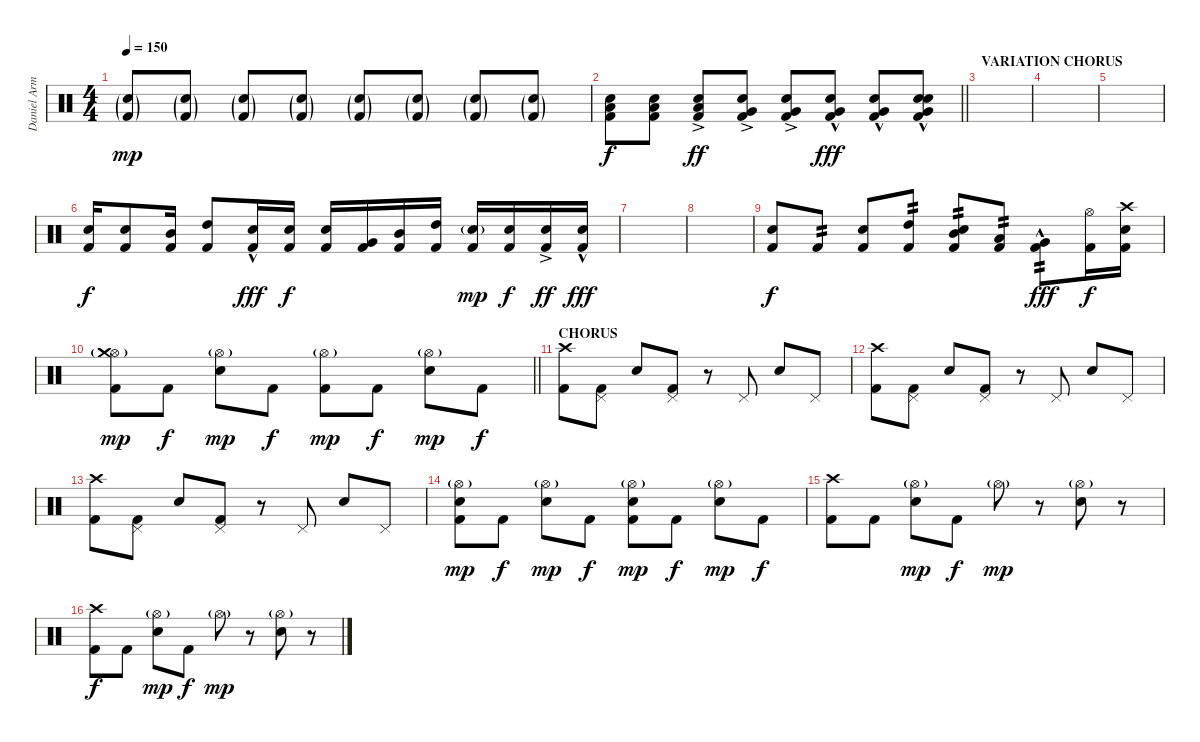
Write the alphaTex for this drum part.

\track ("Daniel Armstrong" "Daniel Arm") {instrument percussion}
\staff {score}
\articulation defaults
\ts (4 4)
\tempo 150
\clef neutral
\ks c
("Electric Snare (hit)"{g} "Kick (hit) 2"{g}).8{dy mp} ("Electric Snare (hit)"{g} "Kick (hit) 2"{g}).8 ("Electric Snare (hit)"{g} "Kick (hit) 2"{g}).8 ("Electric Snare (hit)"{g} "Kick (hit) 2"{g}).8 ("Electric Snare (hit)"{g} "Kick (hit) 2"{g}).8 ("Electric Snare (hit)"{g} "Kick (hit) 2"{g}).8 ("Electric Snare (hit)"{g} "Kick (hit) 2"{g}).8 ("Electric Snare (hit)"{g} "Kick (hit) 2"{g}).8 |
\barLineRight lightlight
("Electric Snare (hit)" "Low Floor Tom (hit)" "Kick (hit) 2").8{dy f} ("Electric Snare (hit)" "Low Floor Tom (hit)" "Kick (hit) 2").8 ("Electric Snare (hit)"{ac} "Low Floor Tom (hit)" "Kick (hit) 2"{ac}).8{dy ff} ("Electric Snare (hit)"{ac} "Very Low Tom (hit)" "Kick (hit) 2"{ac}).8 ("Electric Snare (hit)"{ac} "Very Low Tom (hit)" "Kick (hit) 2"{ac}).8 ("Electric Snare (hit)"{hac} "Very Low Tom (hit)" "Kick (hit) 2"{hac}).8{dy fff} ("Electric Snare (hit)"{hac} "Very Low Tom (hit)" "Kick (hit) 2"{hac}).8 ("Electric Snare (hit)"{hac} "Snare (hit) 2" "Very Low Tom (hit)" "Kick (hit) 2"{hac}).8 |
\section ("" "VARIATION CHORUS")
|
|
|
("Electric Snare (hit)" "Kick (hit) 2").16{dy f} ("Electric Snare (hit)" "Kick (hit) 2").8 ("Mid Tom (hit)" "Kick (hit) 2").16 ("High Tom (hit)" "Kick (hit) 2").8 ("Electric Snare (hit)"{hac} "Kick (hit) 2").16{dy fff} ("Electric Snare (hit)" "Kick (hit) 2").16{dy f} ("Electric Snare (hit)" "Kick (hit) 2").16 ("Very Low Tom (hit)" "Kick (hit) 2").16 ("Mid Tom (hit)" "Kick (hit) 2").16 ("High Tom (hit)" "Kick (hit) 2").16 ("Electric Snare (hit)"{g} "Kick (hit) 2").16{dy mp} ("Electric Snare (hit)" "Kick (hit) 2").16{dy f} ("Electric Snare (hit)"{ac} "Kick (hit) 2").16{dy ff} ("Electric Snare (hit)"{hac} "Kick (hit) 2").16{dy fff} |
|
|
("Electric Snare (hit)" "Kick (hit) 2").8{dy f} "Kick (hit) 2".8{tp 2} ("Electric Snare (hit)" "Kick (hit) 2").8 ("High Tom (hit)" "Kick (hit) 2").8{tp 2} ("Electric Snare (hit)" "Mid Tom (hit)" "Kick (hit) 2").8{tp 2} ("Low Tom (hit)" "Kick (hit) 2").8{tp 2} ("Very Low Tom (hit)"{hac} "Kick (hit) 2").8{tp 2 dy fff} ("Hi-Hat (open)" "Kick (hit) 2").16{dy f} ("Crash high (hit)" "Electric Snare (hit)" "Kick (hit) 2").16 |
\barLineRight lightlight
("Hi-Hat (open)"{g} "Crash medium (hit)" "Kick (hit) 2").8{dy mp} "Kick (hit) 2".8{dy f} ("Hi-Hat (open)"{g} "Electric Snare (hit)").8{dy mp} "Kick (hit) 2".8{dy f} ("Hi-Hat (open)"{g} "Kick (hit) 2").8{dy mp} "Kick (hit) 2".8{dy f} ("Hi-Hat (open)"{g} "Electric Snare (hit)").8{dy mp} "Kick (hit) 2".8{dy f} |
\section ("" "CHORUS")
("Crash high (hit)" "Kick (hit) 2").8 ("Pedal Hi-Hat (hit)" "Kick (hit) 2").8 "Electric Snare (hit)".8 ("Pedal Hi-Hat (hit)" "Kick (hit) 2").8 r.8 "Pedal Hi-Hat (hit)".8 "Electric Snare (hit)".8 "Pedal Hi-Hat (hit)".8 |
("Crash high (hit)" "Kick (hit) 2").8 ("Pedal Hi-Hat (hit)" "Kick (hit) 2").8 "Electric Snare (hit)".8 ("Pedal Hi-Hat (hit)" "Kick (hit) 2").8 r.8 "Pedal Hi-Hat (hit)".8 "Electric Snare (hit)".8 "Pedal Hi-Hat (hit)".8 |
("Crash high (hit)" "Kick (hit) 2").8 ("Pedal Hi-Hat (hit)" "Kick (hit) 2").8 "Electric Snare (hit)".8 ("Pedal Hi-Hat (hit)" "Kick (hit) 2").8 r.8 "Pedal Hi-Hat (hit)".8 "Electric Snare (hit)".8 "Pedal Hi-Hat (hit)".8 |
("Hi-Hat (open)"{g} "Electric Snare (hit)" "Kick (hit) 2").8{dy mp} "Kick (hit) 2".8{dy f} ("Hi-Hat (open)"{g} "Electric Snare (hit)").8{dy mp} "Kick (hit) 2".8{dy f} ("Hi-Hat (open)"{g} "Electric Snare (hit)" "Kick (hit) 2").8{dy mp} "Kick (hit) 2".8{dy f} ("Hi-Hat (open)"{g} "Electric Snare (hit)").8{dy mp} "Kick (hit) 2".8{dy f} |
("Crash high (hit)" "Kick (hit) 2").8 "Kick (hit) 2".8 ("Hi-Hat (open)"{g} "Electric Snare (hit)").8{dy mp} "Kick (hit) 2".8{dy f} "Hi-Hat (open)"{g}.8{dy mp} r.8 ("Hi-Hat (open)"{g} "Electric Snare (hit)").8 r.8 |
("Crash high (hit)" "Kick (hit) 2").8{dy f} "Kick (hit) 2".8 ("Hi-Hat (open)"{g} "Electric Snare (hit)").8{dy mp} "Kick (hit) 2".8{dy f} "Hi-Hat (open)"{g}.8{dy mp} r.8 ("Hi-Hat (open)"{g} "Electric Snare (hit)").8 r.8
